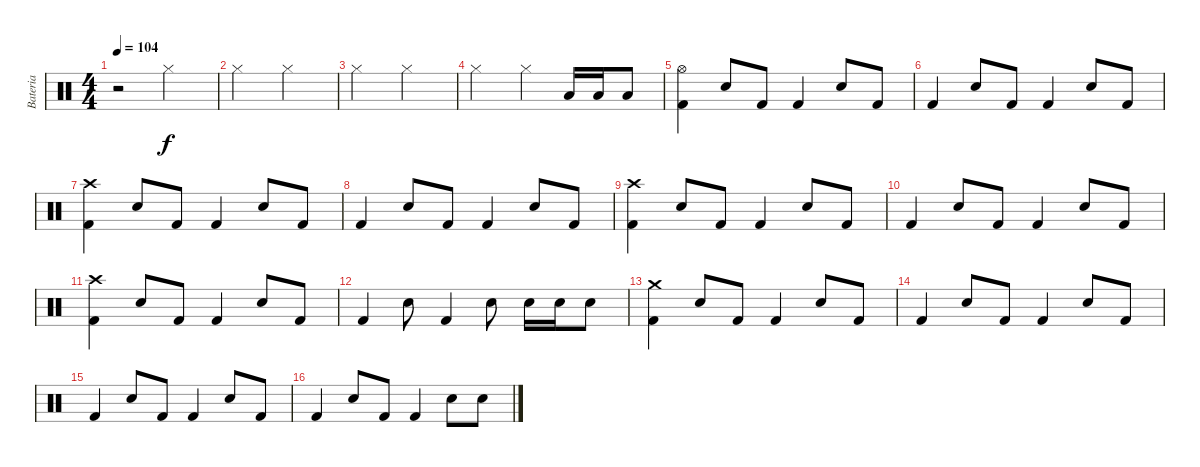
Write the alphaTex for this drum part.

\track ("Bateria" "Bateria") {instrument percussion}
\staff {score}
\articulation defaults
\ts (4 4)
\tempo 104
\clef neutral
\ks c
r.2{dy f} "Hi-Hat (closed)".2 |
"Hi-Hat (closed)".2 "Hi-Hat (closed)".2 |
"Hi-Hat (closed)".2 "Hi-Hat (closed)".2 |
"Hi-Hat (closed)".2 "Hi-Hat (closed)".4 "Low Tom (hit)".16 "Low Tom (hit)".16 "Low Tom (hit)".8 |
("Hi-Hat (open)" "Kick (hit) 2").4 "Snare (hit) 2".8 "Kick (hit) 2".8 "Kick (hit) 2".4 "Snare (hit) 2".8 "Kick (hit) 2".8 |
"Kick (hit) 2".4 "Snare (hit) 2".8 "Kick (hit) 2".8 "Kick (hit) 2".4 "Snare (hit) 2".8 "Kick (hit) 2".8 |
("Crash high (hit)" "Kick (hit) 2").4 "Snare (hit) 2".8 "Kick (hit) 2".8 "Kick (hit) 2".4 "Snare (hit) 2".8 "Kick (hit) 2".8 |
"Kick (hit) 2".4 "Snare (hit) 2".8 "Kick (hit) 2".8 "Kick (hit) 2".4 "Snare (hit) 2".8 "Kick (hit) 2".8 |
("Crash high (hit)" "Kick (hit) 2").4 "Snare (hit) 2".8 "Kick (hit) 2".8 "Kick (hit) 2".4 "Snare (hit) 2".8 "Kick (hit) 2".8 |
"Kick (hit) 2".4 "Snare (hit) 2".8 "Kick (hit) 2".8 "Kick (hit) 2".4 "Snare (hit) 2".8 "Kick (hit) 2".8 |
("Crash high (hit)" "Kick (hit) 2").4 "Snare (hit) 2".8 "Kick (hit) 2".8 "Kick (hit) 2".4 "Snare (hit) 2".8 "Kick (hit) 2".8 |
"Kick (hit) 2".4 "Snare (hit) 2".8 "Kick (hit) 2".4 "Snare (hit) 2".8 "Snare (hit) 2".16 "Snare (hit) 2".16 "Snare (hit) 2".8 |
("Crash medium (hit)" "Kick (hit) 2").4 "Snare (hit) 2".8 "Kick (hit) 2".8 "Kick (hit) 2".4 "Snare (hit) 2".8 "Kick (hit) 2".8 |
"Kick (hit) 2".4 "Snare (hit) 2".8 "Kick (hit) 2".8 "Kick (hit) 2".4 "Snare (hit) 2".8 "Kick (hit) 2".8 |
"Kick (hit) 2".4 "Snare (hit) 2".8 "Kick (hit) 2".8 "Kick (hit) 2".4 "Snare (hit) 2".8 "Kick (hit) 2".8 |
"Kick (hit) 2".4 "Snare (hit) 2".8 "Kick (hit) 2".8 "Kick (hit) 2".4 "Snare (hit) 2".8 "Snare (hit) 2".8
